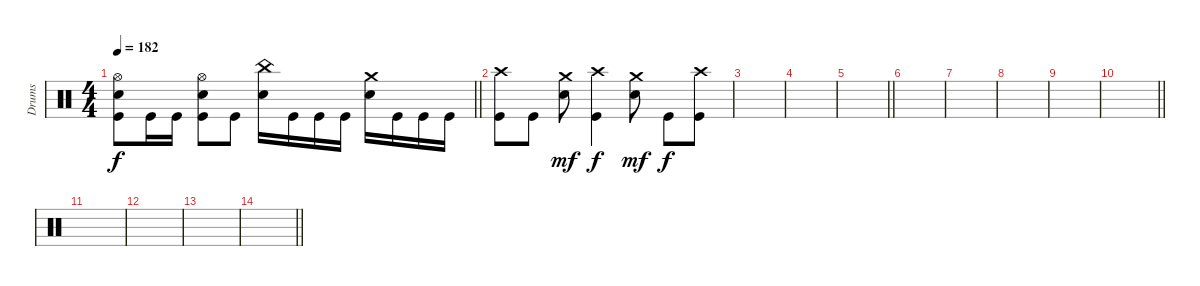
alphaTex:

\track ("Drums" "Drums") {instrument percussion}
\staff
\articulation defaults
\ts (4 4)
\tempo 182
\clef neutral
\barLineRight lightlight
\ks c
("Hi-Hat (open)" "Electric Snare (hit)" "Kick (hit)").8{dy f} "Kick (hit)".16 "Kick (hit)".16 ("Hi-Hat (open)" "Electric Snare (hit)" "Kick (hit)").8 "Kick (hit)".8 ("China (hit)" "Electric Snare (hit)").16 "Kick (hit)".16 "Kick (hit)".16 "Kick (hit)".16 ("Crash medium (hit)" "Electric Snare (hit)").16 "Kick (hit)".16 "Kick (hit)".16 "Kick (hit)".16 |
("Crash high (hit)" "Kick (hit)").8 "Kick (hit)".8 ("Crash medium (hit)" "Electric Snare (hit)").8{dy mf} ("Crash high (hit)" "Kick (hit)").4{dy f} ("Crash medium (hit)" "Electric Snare (hit)").8{dy mf} "Kick (hit)".8{dy f} ("Crash high (hit)" "Kick (hit)").8 |
|
|
\barLineRight lightlight
|
|
|
|
|
\barLineRight lightlight
|
\section ("" "")
|
|
|
\barLineRight lightlight
